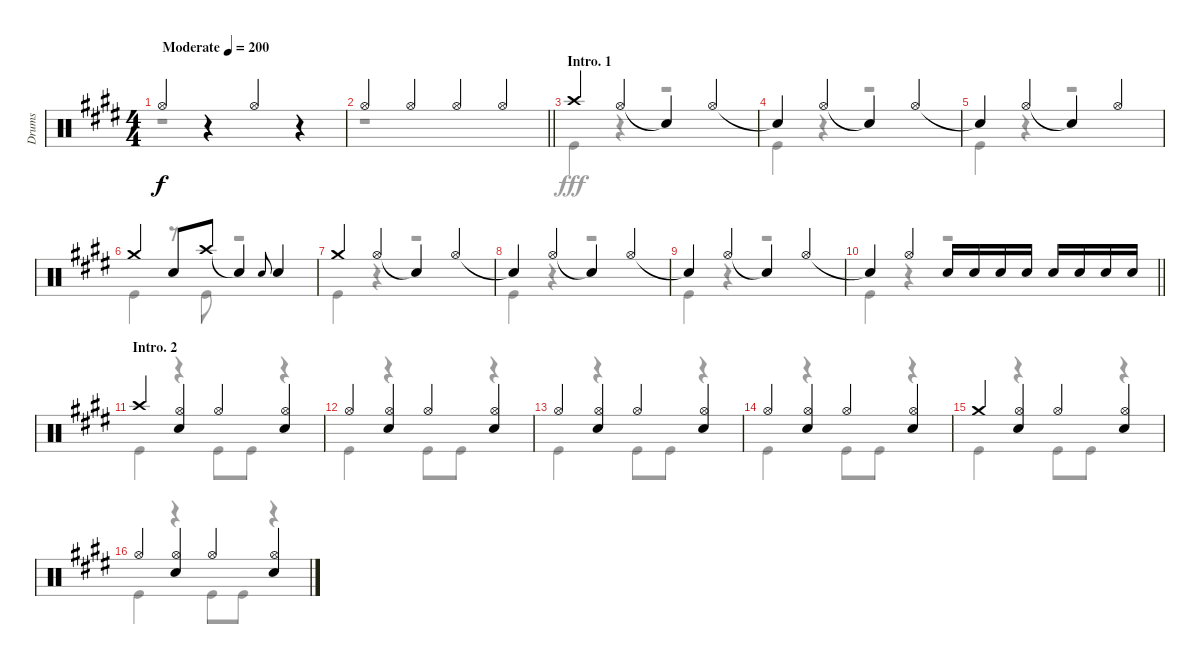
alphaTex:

\track ("Drums" "Drums") {instrument percussion}
\staff {score}
\articulation defaults
\voice
\ts (4 4)
\tempo (200 "Moderate")
\clef neutral
\ks e "Hi-Hat (open)".4{dy f}
r.4 "Hi-Hat (open)".4 r.4 |
\barLineRight lightlight "Hi-Hat (open)".4 "Hi-Hat (open)".4 "Hi-Hat (open)".4 "Hi-Hat (open)".4
|
\section ("" "Intro. 1")
"Crash high (hit)".4 "Hi-Hat (open)".4 "Snare (hit)"{t}.4 "Hi-Hat (open)".4 |
"Snare (hit)"{t}.4 "Hi-Hat (open)".4 "Snare (hit)"{t}.4 "Hi-Hat (open)".4 |
"Snare (hit)"{t}.4 "Hi-Hat (open)".4 "Snare (hit)"{t}.4 "Hi-Hat (open)".4 |
"Crash medium (hit)".4 "Snare (hit) 2".8 "Crash high (hit)".8 "Snare (hit)"{t}.4 "Snare (hit) 2".8{gr onbeat} "Snare (hit) 2".4 |
"Crash medium (hit)".4 "Hi-Hat (open)".4 "Snare (hit)"{t}.4 "Hi-Hat (open)".4 |
"Snare (hit)"{t}.4 "Hi-Hat (open)".4 "Snare (hit)"{t}.4 "Hi-Hat (open)".4 |
"Snare (hit)"{t}.4 "Hi-Hat (open)".4 "Snare (hit)"{t}.4 "Hi-Hat (open)".4 |
\barLineRight lightlight "Snare (hit)"{t}.4 "Hi-Hat (open)".4 "Snare (hit) 2".16 "Snare (hit) 2".16 "Snare (hit) 2".16 "Snare (hit) 2".16 "Snare (hit) 2".16 "Snare (hit) 2".16 "Snare (hit) 2".16 "Snare (hit) 2".16
|
\section ("" "Intro. 2")
"Crash high (hit)".4 ("Hi-Hat (open)" "Snare (hit) 2").4 "Hi-Hat (open)".4 ("Hi-Hat (open)" "Snare (hit) 2").4 |
"Hi-Hat (open)".4 ("Hi-Hat (open)" "Snare (hit) 2").4 "Hi-Hat (open)".4 ("Hi-Hat (open)" "Snare (hit) 2").4 |
"Hi-Hat (open)".4 ("Hi-Hat (open)" "Snare (hit) 2").4 "Hi-Hat (open)".4 ("Hi-Hat (open)" "Snare (hit) 2").4 |
"Hi-Hat (open)".4 ("Hi-Hat (open)" "Snare (hit) 2").4 "Hi-Hat (open)".4 ("Hi-Hat (open)" "Snare (hit) 2").4 |
"Crash medium (hit)".4 ("Hi-Hat (open)" "Snare (hit) 2").4 "Hi-Hat (open)".4 ("Hi-Hat (open)" "Snare (hit) 2").4 |
"Hi-Hat (open)".4 ("Hi-Hat (open)" "Snare (hit) 2").4 "Hi-Hat (open)".4 ("Hi-Hat (open)" "Snare (hit) 2").4
\voice
\clef neutral
\ottava regular
\simile none
\ks e
r.1{dy fff} |
\barLineRight lightlight
r.1 |
"Kick (hit)".4 r.4 r.2 |
"Kick (hit)".4 r.4 r.2 |
"Kick (hit)".4 r.4 r.2 |
"Kick (hit)".4 r.8 "Kick (hit)".8 r.2 |
"Kick (hit)".4 r.4 r.2 |
"Kick (hit)".4 r.4 r.2 |
"Kick (hit)".4 r.4 r.2 |
\barLineRight lightlight "Kick (hit)".4
r.4 r.2 |
"Kick (hit)".4 r.4 "Kick (hit)".8 "Kick (hit)".8 r.4 |
"Kick (hit)".4 r.4 "Kick (hit)".8 "Kick (hit)".8 r.4 |
"Kick (hit)".4 r.4 "Kick (hit)".8 "Kick (hit)".8 r.4 |
"Kick (hit)".4 r.4 "Kick (hit)".8 "Kick (hit)".8 r.4 |
"Kick (hit)".4 r.4 "Kick (hit)".8 "Kick (hit)".8 r.4 |
"Kick (hit)".4 r.4 "Kick (hit)".8 "Kick (hit)".8 r.4
